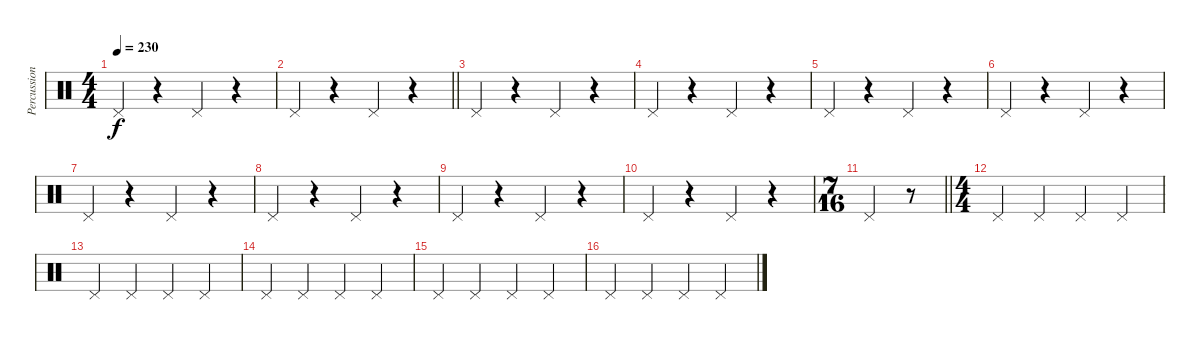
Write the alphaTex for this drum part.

\track ("Percussion" "Percussion") {instrument percussion}
\staff {score}
\articulation defaults
\ts (4 4)
\tempo 230
\clef neutral
\ks c "Pedal Hi-Hat (hit)".4{dy f}
r.4 "Pedal Hi-Hat (hit)".4 r.4 |
\barLineRight lightlight "Pedal Hi-Hat (hit)".4
r.4 "Pedal Hi-Hat (hit)".4 r.4 |
\section ("" "")
"Pedal Hi-Hat (hit)".4 r.4 "Pedal Hi-Hat (hit)".4 r.4 |
"Pedal Hi-Hat (hit)".4 r.4 "Pedal Hi-Hat (hit)".4 r.4 |
"Pedal Hi-Hat (hit)".4 r.4 "Pedal Hi-Hat (hit)".4 r.4 |
"Pedal Hi-Hat (hit)".4 r.4 "Pedal Hi-Hat (hit)".4 r.4 |
"Pedal Hi-Hat (hit)".4 r.4 "Pedal Hi-Hat (hit)".4 r.4 |
"Pedal Hi-Hat (hit)".4 r.4 "Pedal Hi-Hat (hit)".4 r.4 |
"Pedal Hi-Hat (hit)".4 r.4 "Pedal Hi-Hat (hit)".4 r.4 |
"Pedal Hi-Hat (hit)".4 r.4 "Pedal Hi-Hat (hit)".4 r.4 |
\ts (7 16)
\barLineRight lightlight "Pedal Hi-Hat (hit)".4
r.8 |
\ts (4 4)
\section ("" "")
"Pedal Hi-Hat (hit)".4 "Pedal Hi-Hat (hit)".4 "Pedal Hi-Hat (hit)".4 "Pedal Hi-Hat (hit)".4 |
"Pedal Hi-Hat (hit)".4 "Pedal Hi-Hat (hit)".4 "Pedal Hi-Hat (hit)".4 "Pedal Hi-Hat (hit)".4 |
"Pedal Hi-Hat (hit)".4 "Pedal Hi-Hat (hit)".4 "Pedal Hi-Hat (hit)".4 "Pedal Hi-Hat (hit)".4 |
"Pedal Hi-Hat (hit)".4 "Pedal Hi-Hat (hit)".4 "Pedal Hi-Hat (hit)".4 "Pedal Hi-Hat (hit)".4 |
"Pedal Hi-Hat (hit)".4 "Pedal Hi-Hat (hit)".4 "Pedal Hi-Hat (hit)".4 "Pedal Hi-Hat (hit)".4
